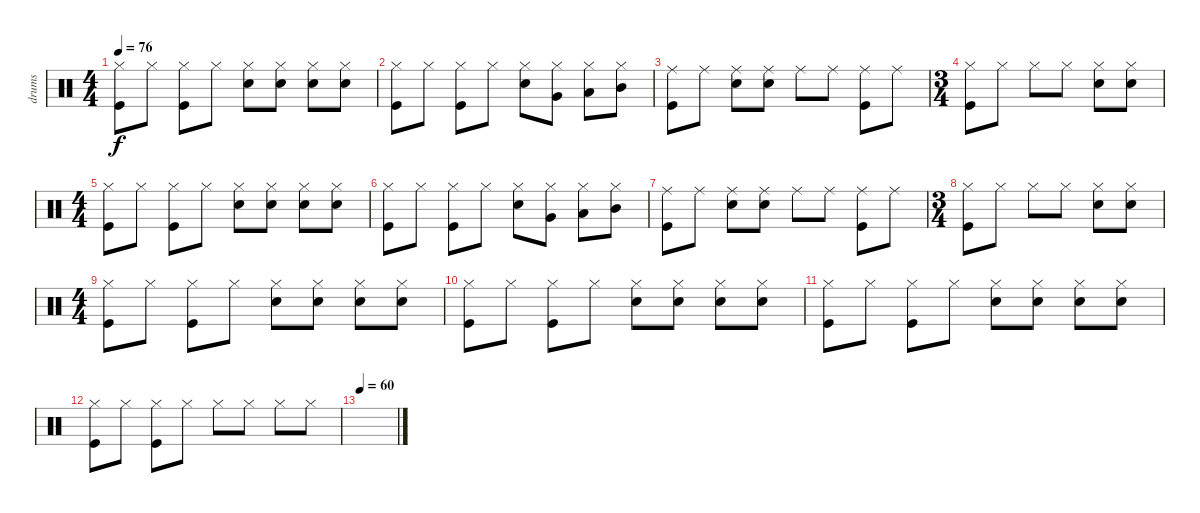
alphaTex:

\track ("drums" "drums") {instrument percussion}
\staff {score}
\articulation defaults
\ts (4 4)
\tempo 76
\clef neutral
\ks c
("Hi-Hat (closed)" "Kick (hit)").8{dy f} "Hi-Hat (closed)".8 ("Hi-Hat (closed)" "Kick (hit)").8 "Hi-Hat (closed)".8 ("Hi-Hat (closed)" "Electric Snare (hit)").8 ("Hi-Hat (closed)" "Electric Snare (hit)").8 ("Hi-Hat (closed)" "Electric Snare (hit)").8 ("Hi-Hat (closed)" "Electric Snare (hit)").8 |
("Hi-Hat (closed)" "Kick (hit)").8 "Hi-Hat (closed)".8 ("Hi-Hat (closed)" "Kick (hit)").8 "Hi-Hat (closed)".8 ("Hi-Hat (closed)" "Electric Snare (hit)").8 ("Hi-Hat (closed)" "Very Low Tom (hit)").8 ("Hi-Hat (closed)" "Low Tom (hit)").8 ("Hi-Hat (closed)" "Mid Tom (hit)").8 |
("Ride (middle)" "Kick (hit)").8 "Ride (middle)".8 ("Ride (middle)" "Electric Snare (hit)").8 ("Ride (middle)" "Electric Snare (hit)").8 "Ride (middle)".8 "Ride (middle)".8 ("Ride (middle)" "Kick (hit)").8 "Ride (middle)".8 |
\ts (3 4)
("Hi-Hat (closed)" "Kick (hit)").8 "Hi-Hat (closed)".8 "Hi-Hat (closed)".8 "Hi-Hat (closed)".8 ("Hi-Hat (closed)" "Electric Snare (hit)").8 ("Hi-Hat (closed)" "Electric Snare (hit)").8 |
\ts (4 4)
("Hi-Hat (closed)" "Kick (hit)").8 "Hi-Hat (closed)".8 ("Hi-Hat (closed)" "Kick (hit)").8 "Hi-Hat (closed)".8 ("Hi-Hat (closed)" "Electric Snare (hit)").8 ("Hi-Hat (closed)" "Electric Snare (hit)").8 ("Hi-Hat (closed)" "Electric Snare (hit)").8 ("Hi-Hat (closed)" "Electric Snare (hit)").8 |
("Hi-Hat (closed)" "Kick (hit)").8 "Hi-Hat (closed)".8 ("Hi-Hat (closed)" "Kick (hit)").8 "Hi-Hat (closed)".8 ("Hi-Hat (closed)" "Electric Snare (hit)").8 ("Hi-Hat (closed)" "Very Low Tom (hit)").8 ("Hi-Hat (closed)" "Low Tom (hit)").8 ("Hi-Hat (closed)" "Mid Tom (hit)").8 |
("Ride (middle)" "Kick (hit)").8 "Ride (middle)".8 ("Ride (middle)" "Electric Snare (hit)").8 ("Ride (middle)" "Electric Snare (hit)").8 "Ride (middle)".8 "Ride (middle)".8 ("Ride (middle)" "Kick (hit)").8 "Ride (middle)".8 |
\ts (3 4)
("Hi-Hat (closed)" "Kick (hit)").8 "Hi-Hat (closed)".8 "Hi-Hat (closed)".8 "Hi-Hat (closed)".8 ("Hi-Hat (closed)" "Electric Snare (hit)").8 ("Hi-Hat (closed)" "Electric Snare (hit)").8 |
\ts (4 4)
("Hi-Hat (closed)" "Kick (hit)").8 "Hi-Hat (closed)".8 ("Hi-Hat (closed)" "Kick (hit)").8 "Hi-Hat (closed)".8 ("Hi-Hat (closed)" "Electric Snare (hit)").8 ("Hi-Hat (closed)" "Electric Snare (hit)").8 ("Hi-Hat (closed)" "Electric Snare (hit)").8 ("Hi-Hat (closed)" "Electric Snare (hit)").8 |
("Hi-Hat (closed)" "Kick (hit)").8 "Hi-Hat (closed)".8 ("Hi-Hat (closed)" "Kick (hit)").8 "Hi-Hat (closed)".8 ("Hi-Hat (closed)" "Electric Snare (hit)").8 ("Hi-Hat (closed)" "Electric Snare (hit)").8 ("Hi-Hat (closed)" "Electric Snare (hit)").8 ("Hi-Hat (closed)" "Electric Snare (hit)").8 |
("Hi-Hat (closed)" "Kick (hit)").8 "Hi-Hat (closed)".8 ("Hi-Hat (closed)" "Kick (hit)").8 "Hi-Hat (closed)".8 ("Hi-Hat (closed)" "Electric Snare (hit)").8 ("Hi-Hat (closed)" "Electric Snare (hit)").8 ("Hi-Hat (closed)" "Electric Snare (hit)").8 ("Hi-Hat (closed)" "Electric Snare (hit)").8 |
("Hi-Hat (closed)" "Kick (hit)").8 "Hi-Hat (closed)".8 ("Hi-Hat (closed)" "Kick (hit)").8 "Hi-Hat (closed)".8 "Hi-Hat (closed)".8 "Hi-Hat (closed)".8 "Hi-Hat (closed)".8 "Hi-Hat (closed)".8 |
\tempo 60
